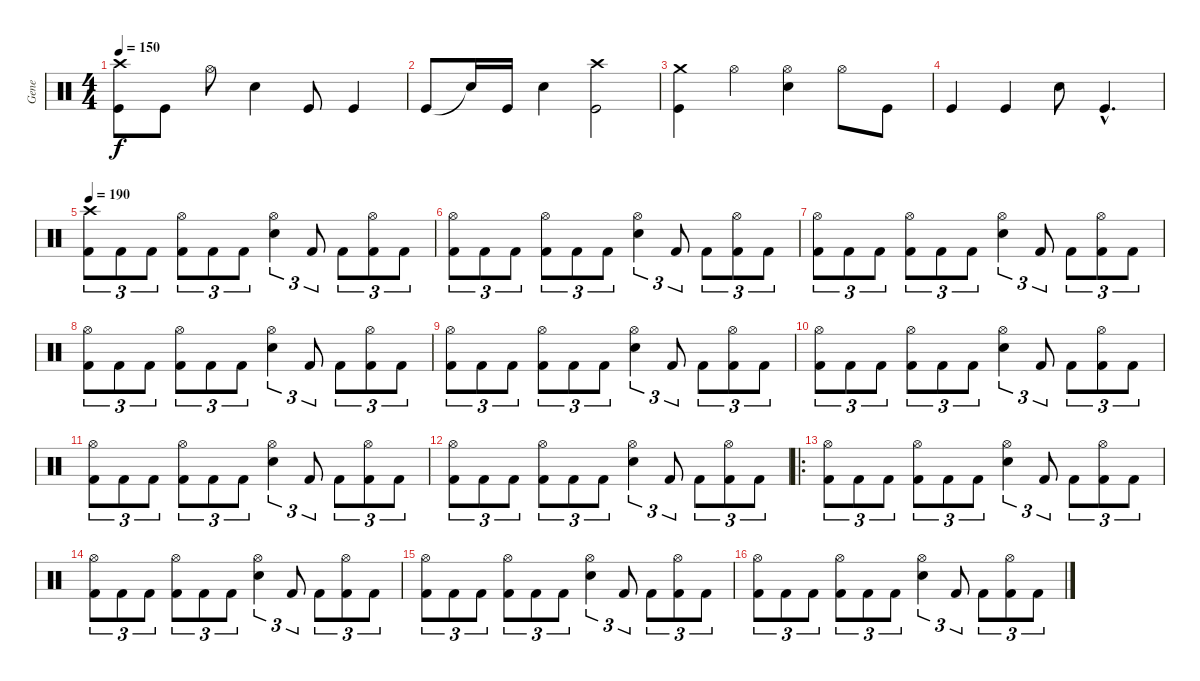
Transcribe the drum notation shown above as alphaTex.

\track ("Gene" "Gene") {instrument percussion}
\staff {score}
\articulation defaults
\ts (4 4)
\tempo 150
\clef neutral
\ks c
("Kick (hit)" "Crash high (hit)").8{dy f} "Kick (hit)".8 "Hi-Hat (open)".8 "Snare (hit) 2".4 "Kick (hit)".8 "Kick (hit)".4 |
"Kick (hit)".8 "Snare (hit)"{t}.16 "Kick (hit)".16 "Snare (hit) 2".4 ("Kick (hit)" "Crash high (hit)").2 |
("Kick (hit)" "Crash medium (hit)").4 "Hi-Hat (open)".4 ("Snare (hit) 2" "Hi-Hat (open)").4 "Hi-Hat (open)".8 "Kick (hit)".8 |
"Kick (hit)".4 "Kick (hit)".4 "Snare (hit) 2".8 "Kick (hit)"{hac}.4{d} |
\tempo 195
\tempo 190
("Crash high (hit)" "Kick (hit) 2").8{tu (3 2)} "Kick (hit) 2".8{tu (3 2)} "Kick (hit) 2".8{tu (3 2)} ("Hi-Hat (open)" "Kick (hit) 2").8{tu (3 2)} "Kick (hit) 2".8{tu (3 2)} "Kick (hit) 2".8{tu (3 2)} ("Hi-Hat (open)" "Electric Snare (hit)").4{tu (3 2)} "Kick (hit) 2".8{tu (3 2)} "Kick (hit) 2".8{tu (3 2)} ("Hi-Hat (open)" "Kick (hit) 2").8{tu (3 2)} "Kick (hit) 2".8{tu (3 2)} |
("Hi-Hat (open)" "Kick (hit) 2").8{tu (3 2)} "Kick (hit) 2".8{tu (3 2)} "Kick (hit) 2".8{tu (3 2)} ("Hi-Hat (open)" "Kick (hit) 2").8{tu (3 2)} "Kick (hit) 2".8{tu (3 2)} "Kick (hit) 2".8{tu (3 2)} ("Hi-Hat (open)" "Electric Snare (hit)").4{tu (3 2)} "Kick (hit) 2".8{tu (3 2)} "Kick (hit) 2".8{tu (3 2)} ("Hi-Hat (open)" "Kick (hit) 2").8{tu (3 2)} "Kick (hit) 2".8{tu (3 2)} |
("Hi-Hat (open)" "Kick (hit) 2").8{tu (3 2)} "Kick (hit) 2".8{tu (3 2)} "Kick (hit) 2".8{tu (3 2)} ("Hi-Hat (open)" "Kick (hit) 2").8{tu (3 2)} "Kick (hit) 2".8{tu (3 2)} "Kick (hit) 2".8{tu (3 2)} ("Hi-Hat (open)" "Electric Snare (hit)").4{tu (3 2)} "Kick (hit) 2".8{tu (3 2)} "Kick (hit) 2".8{tu (3 2)} ("Hi-Hat (open)" "Kick (hit) 2").8{tu (3 2)} "Kick (hit) 2".8{tu (3 2)} |
("Hi-Hat (open)" "Kick (hit) 2").8{tu (3 2)} "Kick (hit) 2".8{tu (3 2)} "Kick (hit) 2".8{tu (3 2)} ("Hi-Hat (open)" "Kick (hit) 2").8{tu (3 2)} "Kick (hit) 2".8{tu (3 2)} "Kick (hit) 2".8{tu (3 2)} ("Hi-Hat (open)" "Electric Snare (hit)").4{tu (3 2)} "Kick (hit) 2".8{tu (3 2)} "Kick (hit) 2".8{tu (3 2)} ("Hi-Hat (open)" "Kick (hit) 2").8{tu (3 2)} "Kick (hit) 2".8{tu (3 2)} |
("Hi-Hat (open)" "Kick (hit) 2").8{tu (3 2)} "Kick (hit) 2".8{tu (3 2)} "Kick (hit) 2".8{tu (3 2)} ("Hi-Hat (open)" "Kick (hit) 2").8{tu (3 2)} "Kick (hit) 2".8{tu (3 2)} "Kick (hit) 2".8{tu (3 2)} ("Hi-Hat (open)" "Electric Snare (hit)").4{tu (3 2)} "Kick (hit) 2".8{tu (3 2)} "Kick (hit) 2".8{tu (3 2)} ("Hi-Hat (open)" "Kick (hit) 2").8{tu (3 2)} "Kick (hit) 2".8{tu (3 2)} |
("Hi-Hat (open)" "Kick (hit) 2").8{tu (3 2)} "Kick (hit) 2".8{tu (3 2)} "Kick (hit) 2".8{tu (3 2)} ("Hi-Hat (open)" "Kick (hit) 2").8{tu (3 2)} "Kick (hit) 2".8{tu (3 2)} "Kick (hit) 2".8{tu (3 2)} ("Hi-Hat (open)" "Electric Snare (hit)").4{tu (3 2)} "Kick (hit) 2".8{tu (3 2)} "Kick (hit) 2".8{tu (3 2)} ("Hi-Hat (open)" "Kick (hit) 2").8{tu (3 2)} "Kick (hit) 2".8{tu (3 2)} |
("Hi-Hat (open)" "Kick (hit) 2").8{tu (3 2)} "Kick (hit) 2".8{tu (3 2)} "Kick (hit) 2".8{tu (3 2)} ("Hi-Hat (open)" "Kick (hit) 2").8{tu (3 2)} "Kick (hit) 2".8{tu (3 2)} "Kick (hit) 2".8{tu (3 2)} ("Hi-Hat (open)" "Electric Snare (hit)").4{tu (3 2)} "Kick (hit) 2".8{tu (3 2)} "Kick (hit) 2".8{tu (3 2)} ("Hi-Hat (open)" "Kick (hit) 2").8{tu (3 2)} "Kick (hit) 2".8{tu (3 2)} |
("Hi-Hat (open)" "Kick (hit) 2").8{tu (3 2)} "Kick (hit) 2".8{tu (3 2)} "Kick (hit) 2".8{tu (3 2)} ("Hi-Hat (open)" "Kick (hit) 2").8{tu (3 2)} "Kick (hit) 2".8{tu (3 2)} "Kick (hit) 2".8{tu (3 2)} ("Hi-Hat (open)" "Electric Snare (hit)").4{tu (3 2)} "Kick (hit) 2".8{tu (3 2)} "Kick (hit) 2".8{tu (3 2)} ("Hi-Hat (open)" "Kick (hit) 2").8{tu (3 2)} "Kick (hit) 2".8{tu (3 2)} |
\ro
("Hi-Hat (open)" "Kick (hit) 2").8{tu (3 2)} "Kick (hit) 2".8{tu (3 2)} "Kick (hit) 2".8{tu (3 2)} ("Hi-Hat (open)" "Kick (hit) 2").8{tu (3 2)} "Kick (hit) 2".8{tu (3 2)} "Kick (hit) 2".8{tu (3 2)} ("Hi-Hat (open)" "Electric Snare (hit)").4{tu (3 2)} "Kick (hit) 2".8{tu (3 2)} "Kick (hit) 2".8{tu (3 2)} ("Hi-Hat (open)" "Kick (hit) 2").8{tu (3 2)} "Kick (hit) 2".8{tu (3 2)} |
("Hi-Hat (open)" "Kick (hit) 2").8{tu (3 2)} "Kick (hit) 2".8{tu (3 2)} "Kick (hit) 2".8{tu (3 2)} ("Hi-Hat (open)" "Kick (hit) 2").8{tu (3 2)} "Kick (hit) 2".8{tu (3 2)} "Kick (hit) 2".8{tu (3 2)} ("Hi-Hat (open)" "Electric Snare (hit)").4{tu (3 2)} "Kick (hit) 2".8{tu (3 2)} "Kick (hit) 2".8{tu (3 2)} ("Hi-Hat (open)" "Kick (hit) 2").8{tu (3 2)} "Kick (hit) 2".8{tu (3 2)} |
("Hi-Hat (open)" "Kick (hit) 2").8{tu (3 2)} "Kick (hit) 2".8{tu (3 2)} "Kick (hit) 2".8{tu (3 2)} ("Hi-Hat (open)" "Kick (hit) 2").8{tu (3 2)} "Kick (hit) 2".8{tu (3 2)} "Kick (hit) 2".8{tu (3 2)} ("Hi-Hat (open)" "Electric Snare (hit)").4{tu (3 2)} "Kick (hit) 2".8{tu (3 2)} "Kick (hit) 2".8{tu (3 2)} ("Hi-Hat (open)" "Kick (hit) 2").8{tu (3 2)} "Kick (hit) 2".8{tu (3 2)} |
("Hi-Hat (open)" "Kick (hit) 2").8{tu (3 2)} "Kick (hit) 2".8{tu (3 2)} "Kick (hit) 2".8{tu (3 2)} ("Hi-Hat (open)" "Kick (hit) 2").8{tu (3 2)} "Kick (hit) 2".8{tu (3 2)} "Kick (hit) 2".8{tu (3 2)} ("Hi-Hat (open)" "Electric Snare (hit)").4{tu (3 2)} "Kick (hit) 2".8{tu (3 2)} "Kick (hit) 2".8{tu (3 2)} ("Hi-Hat (open)" "Kick (hit) 2").8{tu (3 2)} "Kick (hit) 2".8{tu (3 2)}
